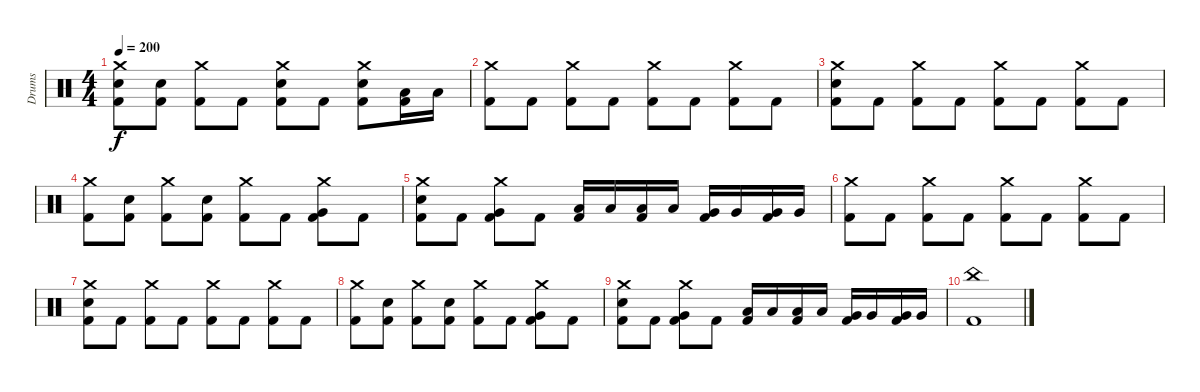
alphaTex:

\track ("Drums" "Drums") {instrument percussion}
\staff {score}
\articulation defaults
\ts (4 4)
\tempo 200
\clef neutral
\ks c
("Crash medium (hit)" "Electric Snare (hit)" "Kick (hit) 2").8{dy f} ("Electric Snare (hit)" "Kick (hit) 2").8 ("Crash medium (hit)" "Kick (hit) 2").8 "Kick (hit) 2".8 ("Crash medium (hit)" "Electric Snare (hit)" "Kick (hit) 2").8 "Kick (hit) 2".8 ("Crash medium (hit)" "Electric Snare (hit)" "Kick (hit) 2").8 ("Low Tom (hit)" "Kick (hit) 2").16 "Low Tom (hit)".16 |
("Crash medium (hit)" "Kick (hit) 2").8 "Kick (hit) 2".8 ("Crash medium (hit)" "Kick (hit) 2").8 "Kick (hit) 2".8 ("Crash medium (hit)" "Kick (hit) 2").8 "Kick (hit) 2".8 ("Crash medium (hit)" "Kick (hit) 2").8 "Kick (hit) 2".8 |
("Crash medium (hit)" "Electric Snare (hit)" "Kick (hit) 2").8 "Kick (hit) 2".8 ("Crash medium (hit)" "Kick (hit) 2").8 "Kick (hit) 2".8 ("Crash medium (hit)" "Kick (hit) 2").8 "Kick (hit) 2".8 ("Crash medium (hit)" "Kick (hit) 2").8 "Kick (hit) 2".8 |
("Crash medium (hit)" "Kick (hit) 2").8 ("Electric Snare (hit)" "Kick (hit) 2").8 ("Crash medium (hit)" "Kick (hit) 2").8 ("Electric Snare (hit)" "Kick (hit) 2").8 ("Crash medium (hit)" "Kick (hit) 2").8 "Kick (hit) 2".8 ("Crash medium (hit)" "Very Low Tom (hit)" "Kick (hit) 2").8 "Kick (hit) 2".8 |
("Crash medium (hit)" "Electric Snare (hit)" "Kick (hit) 2").8 "Kick (hit) 2".8 ("Crash medium (hit)" "Very Low Tom (hit)" "Kick (hit) 2").8 "Kick (hit) 2".8 ("Low Tom (hit)" "Kick (hit) 2").16 "Low Tom (hit)".16 ("Low Tom (hit)" "Kick (hit) 2").16 "Low Tom (hit)".16 ("Very Low Tom (hit)" "Kick (hit) 2").16 "Very Low Tom (hit)".16 ("Very Low Tom (hit)" "Kick (hit) 2").16 "Very Low Tom (hit)".16 |
("Crash medium (hit)" "Kick (hit) 2").8 "Kick (hit) 2".8 ("Crash medium (hit)" "Kick (hit) 2").8 "Kick (hit) 2".8 ("Crash medium (hit)" "Kick (hit) 2").8 "Kick (hit) 2".8 ("Crash medium (hit)" "Kick (hit) 2").8 "Kick (hit) 2".8 |
("Crash medium (hit)" "Electric Snare (hit)" "Kick (hit) 2").8 "Kick (hit) 2".8 ("Crash medium (hit)" "Kick (hit) 2").8 "Kick (hit) 2".8 ("Crash medium (hit)" "Kick (hit) 2").8 "Kick (hit) 2".8 ("Crash medium (hit)" "Kick (hit) 2").8 "Kick (hit) 2".8 |
("Crash medium (hit)" "Kick (hit) 2").8 ("Electric Snare (hit)" "Kick (hit) 2").8 ("Crash medium (hit)" "Kick (hit) 2").8 ("Electric Snare (hit)" "Kick (hit) 2").8 ("Crash medium (hit)" "Kick (hit) 2").8 "Kick (hit) 2".8 ("Crash medium (hit)" "Very Low Tom (hit)" "Kick (hit) 2").8 "Kick (hit) 2".8 |
("Crash medium (hit)" "Electric Snare (hit)" "Kick (hit) 2").8 "Kick (hit) 2".8 ("Crash medium (hit)" "Very Low Tom (hit)" "Kick (hit) 2").8 "Kick (hit) 2".8 ("Low Tom (hit)" "Kick (hit) 2").16 "Low Tom (hit)".16 ("Low Tom (hit)" "Kick (hit) 2").16 "Low Tom (hit)".16 ("Very Low Tom (hit)" "Kick (hit) 2").16 "Very Low Tom (hit)".16 ("Very Low Tom (hit)" "Kick (hit) 2").16 "Very Low Tom (hit)".16 |
("China (hit)" "Kick (hit) 2").1
